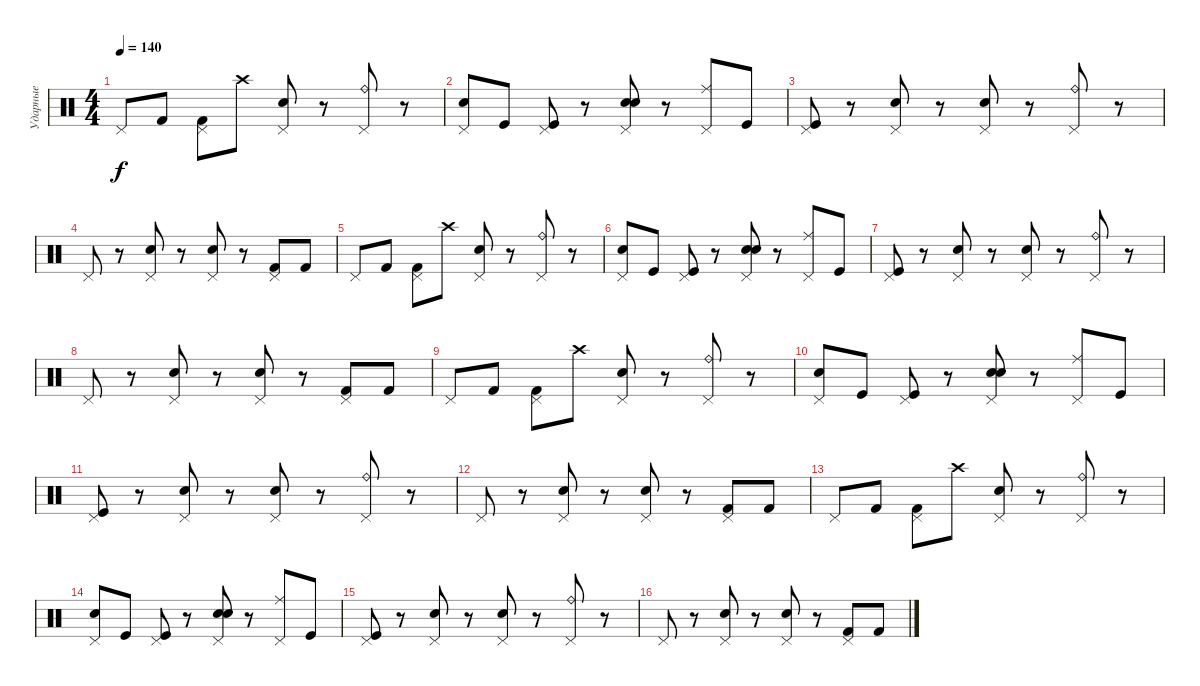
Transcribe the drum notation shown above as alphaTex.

\track ("Ударные" "Ударные") {instrument percussion bank 7}
\staff {score}
\articulation defaults
\ts (4 4)
\tempo 140
\clef neutral
\ks c "Pedal Hi-Hat (hit)".8{dy f} "Kick (hit) 2".8
("Pedal Hi-Hat (hit)" "Kick (hit) 2").8 "Crash high (hit)".8 ("Pedal Hi-Hat (hit)" "Metronome (bell)").8 r.8 ("Pedal Hi-Hat (hit)" "Ride (bell)").8 r.8 |
("Pedal Hi-Hat (hit)" "Snare (hit) 2").8 "Kick (hit)".8 ("Pedal Hi-Hat (hit)" "Kick (hit)").8 r.8 ("Pedal Hi-Hat (hit)" "Electric Snare (hit)" "Metronome (bell)").8 r.8 ("Pedal Hi-Hat (hit)" "Ride (middle)").8 "Kick (hit)".8 |
("Pedal Hi-Hat (hit)" "Kick (hit)").8 r.8 ("Pedal Hi-Hat (hit)" "Electric Snare (hit)").8 r.8 ("Pedal Hi-Hat (hit)" "Metronome (bell)").8 r.8 ("Pedal Hi-Hat (hit)" "Ride (bell)").8 r.8 |
"Pedal Hi-Hat (hit)".8 r.8 ("Pedal Hi-Hat (hit)" "Electric Snare (hit)").8 r.8 ("Pedal Hi-Hat (hit)" "Metronome (bell)").8 r.8 ("Pedal Hi-Hat (hit)" "Kick (hit) 2").8 "Kick (hit) 2".8 |
"Pedal Hi-Hat (hit)".8 "Kick (hit) 2".8 ("Pedal Hi-Hat (hit)" "Kick (hit) 2").8 "Crash high (hit)".8 ("Pedal Hi-Hat (hit)" "Metronome (bell)").8 r.8 ("Pedal Hi-Hat (hit)" "Ride (bell)").8 r.8 |
("Pedal Hi-Hat (hit)" "Snare (hit) 2").8 "Kick (hit)".8 ("Pedal Hi-Hat (hit)" "Kick (hit)").8 r.8 ("Pedal Hi-Hat (hit)" "Electric Snare (hit)" "Metronome (bell)").8 r.8 ("Pedal Hi-Hat (hit)" "Ride (middle)").8 "Kick (hit)".8 |
("Pedal Hi-Hat (hit)" "Kick (hit)").8 r.8 ("Pedal Hi-Hat (hit)" "Electric Snare (hit)").8 r.8 ("Pedal Hi-Hat (hit)" "Metronome (bell)").8 r.8 ("Pedal Hi-Hat (hit)" "Ride (bell)").8 r.8 |
"Pedal Hi-Hat (hit)".8 r.8 ("Pedal Hi-Hat (hit)" "Electric Snare (hit)").8 r.8 ("Pedal Hi-Hat (hit)" "Metronome (bell)").8 r.8 ("Pedal Hi-Hat (hit)" "Kick (hit) 2").8 "Kick (hit) 2".8 |
"Pedal Hi-Hat (hit)".8 "Kick (hit) 2".8 ("Pedal Hi-Hat (hit)" "Kick (hit) 2").8 "Crash high (hit)".8 ("Pedal Hi-Hat (hit)" "Metronome (bell)").8 r.8 ("Pedal Hi-Hat (hit)" "Ride (bell)").8 r.8 |
("Pedal Hi-Hat (hit)" "Snare (hit) 2").8 "Kick (hit)".8 ("Pedal Hi-Hat (hit)" "Kick (hit)").8 r.8 ("Pedal Hi-Hat (hit)" "Electric Snare (hit)" "Metronome (bell)").8 r.8 ("Pedal Hi-Hat (hit)" "Ride (middle)").8 "Kick (hit)".8 |
("Pedal Hi-Hat (hit)" "Kick (hit)").8 r.8 ("Pedal Hi-Hat (hit)" "Electric Snare (hit)").8 r.8 ("Pedal Hi-Hat (hit)" "Metronome (bell)").8 r.8 ("Pedal Hi-Hat (hit)" "Ride (bell)").8 r.8 |
"Pedal Hi-Hat (hit)".8 r.8 ("Pedal Hi-Hat (hit)" "Electric Snare (hit)").8 r.8 ("Pedal Hi-Hat (hit)" "Metronome (bell)").8 r.8 ("Pedal Hi-Hat (hit)" "Kick (hit) 2").8 "Kick (hit) 2".8 |
"Pedal Hi-Hat (hit)".8 "Kick (hit) 2".8 ("Pedal Hi-Hat (hit)" "Kick (hit) 2").8 "Crash high (hit)".8 ("Pedal Hi-Hat (hit)" "Metronome (bell)").8 r.8 ("Pedal Hi-Hat (hit)" "Ride (bell)").8 r.8 |
("Pedal Hi-Hat (hit)" "Snare (hit) 2").8 "Kick (hit)".8 ("Pedal Hi-Hat (hit)" "Kick (hit)").8 r.8 ("Pedal Hi-Hat (hit)" "Electric Snare (hit)" "Metronome (bell)").8 r.8 ("Pedal Hi-Hat (hit)" "Ride (middle)").8 "Kick (hit)".8 |
("Pedal Hi-Hat (hit)" "Kick (hit)").8 r.8 ("Pedal Hi-Hat (hit)" "Electric Snare (hit)").8 r.8 ("Pedal Hi-Hat (hit)" "Metronome (bell)").8 r.8 ("Pedal Hi-Hat (hit)" "Ride (bell)").8 r.8 |
"Pedal Hi-Hat (hit)".8 r.8 ("Pedal Hi-Hat (hit)" "Electric Snare (hit)").8 r.8 ("Pedal Hi-Hat (hit)" "Metronome (bell)").8 r.8 ("Pedal Hi-Hat (hit)" "Kick (hit) 2").8 "Kick (hit) 2".8
